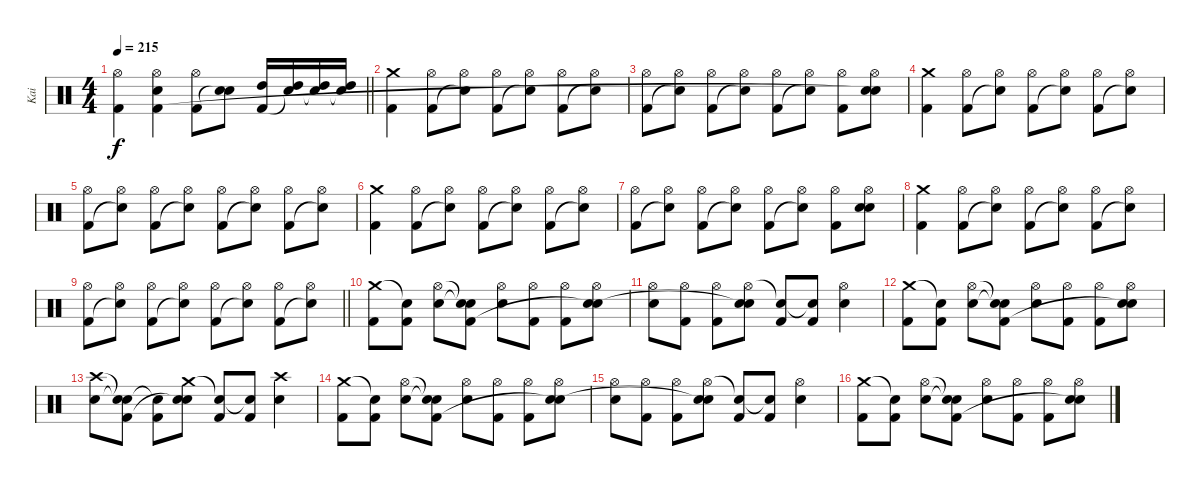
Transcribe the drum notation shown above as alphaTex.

\track ("Kai" "Kai") {instrument percussion}
\staff {score}
\articulation defaults
\ts (4 4)
\tempo 215
\clef neutral
\barLineRight lightlight
\ks c
("Hi-Hat (open)" "Kick (hit) 2").4{dy f} ("Hi-Hat (open)" "Snare (hit) 2" "Kick (hit) 2").4 ("Hi-Hat (open)" "Kick (hit) 2").8 ("Snare (hit) 2" "Snare (hit)"{t}).8 ("High Tom (hit)" "Kick (hit) 2").16 ("High Tom (hit)" "Snare (hit)"{t}).16 ("High Tom (hit)" "Snare (hit)"{t}).16 ("High Tom (hit)" "Snare (hit)"{t}).16 |
("Crash medium (hit)" "Kick (hit) 2").4 ("Hi-Hat (open)" "Kick (hit) 2").8 ("Hi-Hat (open)" "Snare (hit)"{t}).8 ("Hi-Hat (open)" "Kick (hit) 2").8 ("Hi-Hat (open)" "Snare (hit)"{t}).8 ("Hi-Hat (open)" "Kick (hit) 2").8 ("Hi-Hat (open)" "Snare (hit)"{t}).8 |
("Hi-Hat (open)" "Kick (hit) 2").8 ("Hi-Hat (open)" "Snare (hit)"{t}).8 ("Hi-Hat (open)" "Kick (hit) 2").8 ("Hi-Hat (open)" "Snare (hit)"{t}).8 ("Hi-Hat (open)" "Kick (hit) 2").8 ("Hi-Hat (open)" "Snare (hit)"{t}).8 ("Hi-Hat (open)" "Kick (hit) 2").8 ("Hi-Hat (open)" "Snare (hit) 2" "Snare (hit)"{t}).8 |
("Crash medium (hit)" "Kick (hit) 2").4 ("Hi-Hat (open)" "Kick (hit) 2").8 ("Hi-Hat (open)" "Snare (hit)"{t}).8 ("Hi-Hat (open)" "Kick (hit) 2").8 ("Hi-Hat (open)" "Snare (hit)"{t}).8 ("Hi-Hat (open)" "Kick (hit) 2").8 ("Hi-Hat (open)" "Snare (hit)"{t}).8 |
("Hi-Hat (open)" "Kick (hit) 2").8 ("Hi-Hat (open)" "Snare (hit)"{t}).8 ("Hi-Hat (open)" "Kick (hit) 2").8 ("Hi-Hat (open)" "Snare (hit)"{t}).8 ("Hi-Hat (open)" "Kick (hit) 2").8 ("Hi-Hat (open)" "Snare (hit)"{t}).8 ("Hi-Hat (open)" "Kick (hit) 2").8 ("Hi-Hat (open)" "Snare (hit)"{t}).8 |
("Crash medium (hit)" "Kick (hit) 2").4 ("Hi-Hat (open)" "Kick (hit) 2").8 ("Hi-Hat (open)" "Snare (hit)"{t}).8 ("Hi-Hat (open)" "Kick (hit) 2").8 ("Hi-Hat (open)" "Snare (hit)"{t}).8 ("Hi-Hat (open)" "Kick (hit) 2").8 ("Hi-Hat (open)" "Snare (hit)"{t}).8 |
("Hi-Hat (open)" "Kick (hit) 2").8 ("Hi-Hat (open)" "Snare (hit)"{t}).8 ("Hi-Hat (open)" "Kick (hit) 2").8 ("Hi-Hat (open)" "Snare (hit)"{t}).8 ("Hi-Hat (open)" "Kick (hit) 2").8 ("Hi-Hat (open)" "Snare (hit)"{t}).8 ("Hi-Hat (open)" "Kick (hit) 2").8 ("Hi-Hat (open)" "Snare (hit) 2" "Snare (hit)").8 |
("Crash medium (hit)" "Kick (hit) 2").4 ("Hi-Hat (open)" "Kick (hit) 2").8 ("Hi-Hat (open)" "Snare (hit)"{t}).8 ("Hi-Hat (open)" "Kick (hit) 2").8 ("Hi-Hat (open)" "Snare (hit)"{t}).8 ("Hi-Hat (open)" "Kick (hit) 2").8 ("Hi-Hat (open)" "Snare (hit)"{t}).8 |
\barLineRight lightlight
("Hi-Hat (open)" "Kick (hit) 2").8 ("Hi-Hat (open)" "Snare (hit)"{t}).8 ("Hi-Hat (open)" "Kick (hit) 2").8 ("Hi-Hat (open)" "Snare (hit)"{t}).8 ("Hi-Hat (open)" "Kick (hit) 2").8 ("Hi-Hat (open)" "Snare (hit)"{t}).8 ("Hi-Hat (open)" "Kick (hit) 2").8 ("Hi-Hat (open)" "Snare (hit)"{t}).8 |
("Crash medium (hit)" "Kick (hit) 2").8 ("Snare (hit)"{t} "Kick (hit) 2").8 ("Hi-Hat (open)" "Snare (hit) 2").8 ("Snare (hit)"{t} "Snare (hit)"{t} "Kick (hit) 2").8 ("Hi-Hat (open)" "Snare (hit) 2").8 ("Hi-Hat (open)" "Kick (hit) 2").8 ("Hi-Hat (open)" "Kick (hit) 2").8 ("Hi-Hat (open)" "Snare (hit) 2" "Snare (hit)"{t}).8 |
("Hi-Hat (open)" "Snare (hit) 2").8 ("Hi-Hat (open)" "Kick (hit) 2").8 ("Hi-Hat (open)" "Kick (hit) 2").8 ("Hi-Hat (open)" "Snare (hit) 2" "Snare (hit)"{t}).8 ("Snare (hit)"{t} "Kick (hit) 2").8 ("Snare (hit)"{t} "Kick (hit) 2").8 ("Hi-Hat (open)" "Snare (hit) 2").4 |
("Crash medium (hit)" "Kick (hit) 2").8 ("Snare (hit)"{t} "Kick (hit) 2").8 ("Hi-Hat (open)" "Snare (hit) 2").8 ("Snare (hit)"{t} "Snare (hit)"{t} "Kick (hit) 2").8 ("Hi-Hat (open)" "Snare (hit) 2").8 ("Hi-Hat (open)" "Kick (hit) 2").8 ("Hi-Hat (open)" "Kick (hit) 2").8 ("Hi-Hat (open)" "Snare (hit) 2" "Snare (hit)"{t}).8 |
("Crash high (hit)" "Snare (hit) 2").8 ("Snare (hit)"{t} "Snare (hit)"{t} "Kick (hit) 2").8 ("Snare (hit)"{t} "Kick (hit) 2").8 ("Crash medium (hit)" "Snare (hit) 2" "Snare (hit)"{t}).8 ("Snare (hit)"{t} "Kick (hit) 2").8 ("Snare (hit)"{t} "Kick (hit) 2").8 ("Crash high (hit)" "Snare (hit) 2").4 |
("Crash medium (hit)" "Kick (hit) 2").8 ("Snare (hit)"{t} "Kick (hit) 2").8 ("Hi-Hat (open)" "Snare (hit) 2").8 ("Snare (hit)"{t} "Snare (hit)"{t} "Kick (hit) 2").8 ("Hi-Hat (open)" "Snare (hit) 2").8 ("Hi-Hat (open)" "Kick (hit) 2").8 ("Hi-Hat (open)" "Kick (hit) 2").8 ("Hi-Hat (open)" "Snare (hit) 2" "Snare (hit)"{t}).8 |
("Hi-Hat (open)" "Snare (hit) 2").8 ("Hi-Hat (open)" "Kick (hit) 2").8 ("Hi-Hat (open)" "Kick (hit) 2").8 ("Hi-Hat (open)" "Snare (hit) 2" "Snare (hit)"{t}).8 ("Snare (hit)"{t} "Kick (hit) 2").8 ("Snare (hit)"{t} "Kick (hit) 2").8 ("Hi-Hat (open)" "Snare (hit) 2").4 |
("Crash medium (hit)" "Kick (hit) 2").8 ("Snare (hit)"{t} "Kick (hit) 2").8 ("Hi-Hat (open)" "Snare (hit) 2").8 ("Snare (hit)"{t} "Snare (hit)"{t} "Kick (hit) 2").8 ("Hi-Hat (open)" "Snare (hit) 2").8 ("Hi-Hat (open)" "Kick (hit) 2").8 ("Hi-Hat (open)" "Kick (hit) 2").8 ("Hi-Hat (open)" "Snare (hit) 2" "Snare (hit)"{t}).8
